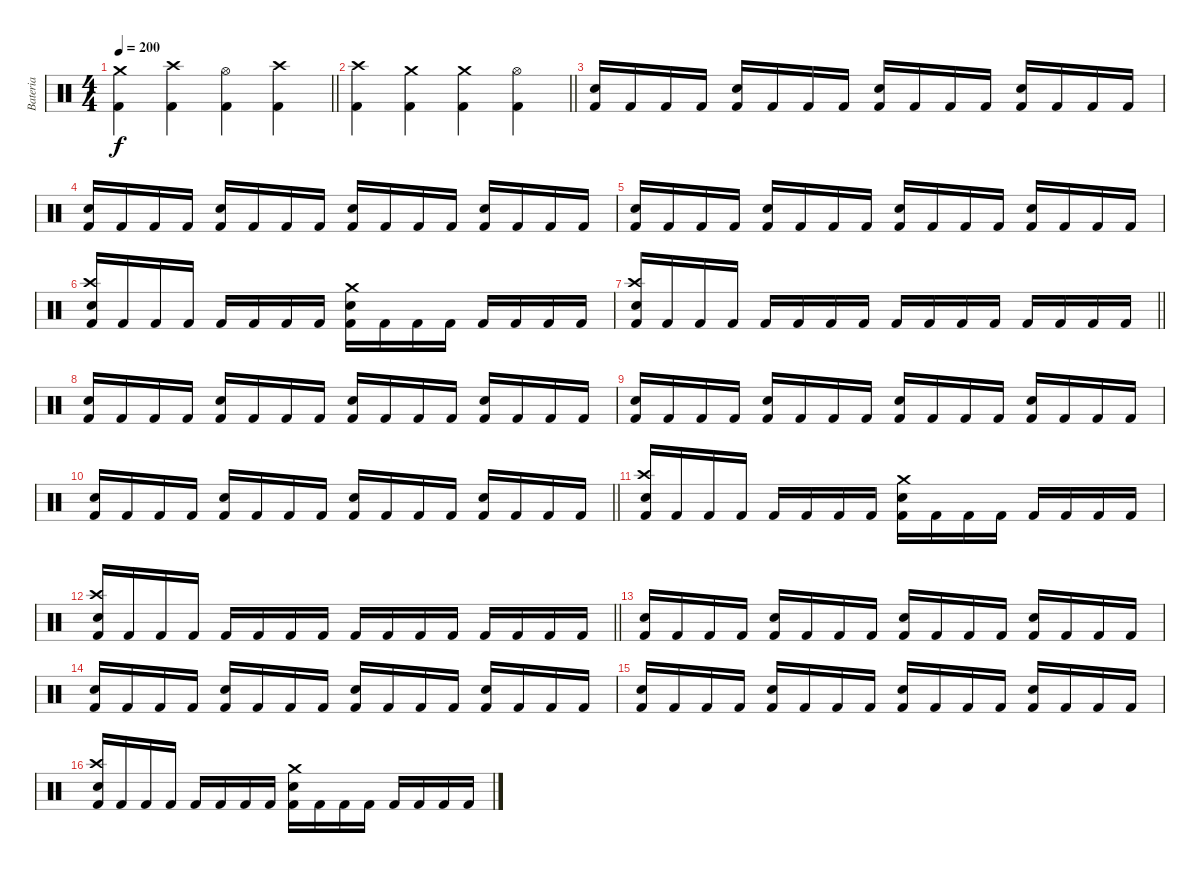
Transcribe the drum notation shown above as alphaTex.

\track ("Bateria" "Bateria") {instrument percussion}
\staff {score}
\articulation defaults
\ts (4 4)
\tempo 200
\clef neutral
\barLineRight lightlight
\ks c
("Crash medium (hit)" "Kick (hit) 2").4{dy f} ("Crash high (hit)" "Kick (hit) 2").4 ("Hi-Hat (open)" "Kick (hit) 2").4 ("Crash high (hit)" "Kick (hit) 2").4 |
\barLineRight lightlight
("Crash high (hit)" "Kick (hit) 2").4 ("Crash medium (hit)" "Kick (hit) 2").4 ("Crash medium (hit)" "Kick (hit) 2").4 ("Hi-Hat (open)" "Kick (hit) 2").4 |
\section ("" "")
("Electric Snare (hit)" "Kick (hit) 2").16 "Kick (hit) 2".16 "Kick (hit) 2".16 "Kick (hit) 2".16 ("Electric Snare (hit)" "Kick (hit) 2").16 "Kick (hit) 2".16 "Kick (hit) 2".16 "Kick (hit) 2".16 ("Electric Snare (hit)" "Kick (hit) 2").16 "Kick (hit) 2".16 "Kick (hit) 2".16 "Kick (hit) 2".16 ("Electric Snare (hit)" "Kick (hit) 2").16 "Kick (hit) 2".16 "Kick (hit) 2".16 "Kick (hit) 2".16 |
("Electric Snare (hit)" "Kick (hit) 2").16 "Kick (hit) 2".16 "Kick (hit) 2".16 "Kick (hit) 2".16 ("Electric Snare (hit)" "Kick (hit) 2").16 "Kick (hit) 2".16 "Kick (hit) 2".16 "Kick (hit) 2".16 ("Electric Snare (hit)" "Kick (hit) 2").16 "Kick (hit) 2".16 "Kick (hit) 2".16 "Kick (hit) 2".16 ("Electric Snare (hit)" "Kick (hit) 2").16 "Kick (hit) 2".16 "Kick (hit) 2".16 "Kick (hit) 2".16 |
("Electric Snare (hit)" "Kick (hit) 2").16 "Kick (hit) 2".16 "Kick (hit) 2".16 "Kick (hit) 2".16 ("Electric Snare (hit)" "Kick (hit) 2").16 "Kick (hit) 2".16 "Kick (hit) 2".16 "Kick (hit) 2".16 ("Electric Snare (hit)" "Kick (hit) 2").16 "Kick (hit) 2".16 "Kick (hit) 2".16 "Kick (hit) 2".16 ("Electric Snare (hit)" "Kick (hit) 2").16 "Kick (hit) 2".16 "Kick (hit) 2".16 "Kick (hit) 2".16 |
("Crash high (hit)" "Electric Snare (hit)" "Kick (hit) 2").16 "Kick (hit) 2".16 "Kick (hit) 2".16 "Kick (hit) 2".16 "Kick (hit) 2".16 "Kick (hit) 2".16 "Kick (hit) 2".16 "Kick (hit) 2".16 ("Crash medium (hit)" "Electric Snare (hit)" "Kick (hit) 2").16 "Kick (hit) 2".16 "Kick (hit) 2".16 "Kick (hit) 2".16 "Kick (hit) 2".16 "Kick (hit) 2".16 "Kick (hit) 2".16 "Kick (hit) 2".16 |
\barLineRight lightlight
("Crash high (hit)" "Electric Snare (hit)" "Kick (hit) 2").16 "Kick (hit) 2".16 "Kick (hit) 2".16 "Kick (hit) 2".16 "Kick (hit) 2".16 "Kick (hit) 2".16 "Kick (hit) 2".16 "Kick (hit) 2".16 "Kick (hit) 2".16 "Kick (hit) 2".16 "Kick (hit) 2".16 "Kick (hit) 2".16 "Kick (hit) 2".16 "Kick (hit) 2".16 "Kick (hit) 2".16 "Kick (hit) 2".16 |
("Electric Snare (hit)" "Kick (hit) 2").16 "Kick (hit) 2".16 "Kick (hit) 2".16 "Kick (hit) 2".16 ("Electric Snare (hit)" "Kick (hit) 2").16 "Kick (hit) 2".16 "Kick (hit) 2".16 "Kick (hit) 2".16 ("Electric Snare (hit)" "Kick (hit) 2").16 "Kick (hit) 2".16 "Kick (hit) 2".16 "Kick (hit) 2".16 ("Electric Snare (hit)" "Kick (hit) 2").16 "Kick (hit) 2".16 "Kick (hit) 2".16 "Kick (hit) 2".16 |
("Electric Snare (hit)" "Kick (hit) 2").16 "Kick (hit) 2".16 "Kick (hit) 2".16 "Kick (hit) 2".16 ("Electric Snare (hit)" "Kick (hit) 2").16 "Kick (hit) 2".16 "Kick (hit) 2".16 "Kick (hit) 2".16 ("Electric Snare (hit)" "Kick (hit) 2").16 "Kick (hit) 2".16 "Kick (hit) 2".16 "Kick (hit) 2".16 ("Electric Snare (hit)" "Kick (hit) 2").16 "Kick (hit) 2".16 "Kick (hit) 2".16 "Kick (hit) 2".16 |
\barLineRight lightlight
("Electric Snare (hit)" "Kick (hit) 2").16 "Kick (hit) 2".16 "Kick (hit) 2".16 "Kick (hit) 2".16 ("Electric Snare (hit)" "Kick (hit) 2").16 "Kick (hit) 2".16 "Kick (hit) 2".16 "Kick (hit) 2".16 ("Electric Snare (hit)" "Kick (hit) 2").16 "Kick (hit) 2".16 "Kick (hit) 2".16 "Kick (hit) 2".16 ("Electric Snare (hit)" "Kick (hit) 2").16 "Kick (hit) 2".16 "Kick (hit) 2".16 "Kick (hit) 2".16 |
("Crash high (hit)" "Electric Snare (hit)" "Kick (hit) 2").16 "Kick (hit) 2".16 "Kick (hit) 2".16 "Kick (hit) 2".16 "Kick (hit) 2".16 "Kick (hit) 2".16 "Kick (hit) 2".16 "Kick (hit) 2".16 ("Crash medium (hit)" "Electric Snare (hit)" "Kick (hit) 2").16 "Kick (hit) 2".16 "Kick (hit) 2".16 "Kick (hit) 2".16 "Kick (hit) 2".16 "Kick (hit) 2".16 "Kick (hit) 2".16 "Kick (hit) 2".16 |
\barLineRight lightlight
("Crash high (hit)" "Electric Snare (hit)" "Kick (hit) 2").16 "Kick (hit) 2".16 "Kick (hit) 2".16 "Kick (hit) 2".16 "Kick (hit) 2".16 "Kick (hit) 2".16 "Kick (hit) 2".16 "Kick (hit) 2".16 "Kick (hit) 2".16 "Kick (hit) 2".16 "Kick (hit) 2".16 "Kick (hit) 2".16 "Kick (hit) 2".16 "Kick (hit) 2".16 "Kick (hit) 2".16 "Kick (hit) 2".16 |
("Electric Snare (hit)" "Kick (hit) 2").16 "Kick (hit) 2".16 "Kick (hit) 2".16 "Kick (hit) 2".16 ("Electric Snare (hit)" "Kick (hit) 2").16 "Kick (hit) 2".16 "Kick (hit) 2".16 "Kick (hit) 2".16 ("Electric Snare (hit)" "Kick (hit) 2").16 "Kick (hit) 2".16 "Kick (hit) 2".16 "Kick (hit) 2".16 ("Electric Snare (hit)" "Kick (hit) 2").16 "Kick (hit) 2".16 "Kick (hit) 2".16 "Kick (hit) 2".16 |
("Electric Snare (hit)" "Kick (hit) 2").16 "Kick (hit) 2".16 "Kick (hit) 2".16 "Kick (hit) 2".16 ("Electric Snare (hit)" "Kick (hit) 2").16 "Kick (hit) 2".16 "Kick (hit) 2".16 "Kick (hit) 2".16 ("Electric Snare (hit)" "Kick (hit) 2").16 "Kick (hit) 2".16 "Kick (hit) 2".16 "Kick (hit) 2".16 ("Electric Snare (hit)" "Kick (hit) 2").16 "Kick (hit) 2".16 "Kick (hit) 2".16 "Kick (hit) 2".16 |
("Electric Snare (hit)" "Kick (hit) 2").16 "Kick (hit) 2".16 "Kick (hit) 2".16 "Kick (hit) 2".16 ("Electric Snare (hit)" "Kick (hit) 2").16 "Kick (hit) 2".16 "Kick (hit) 2".16 "Kick (hit) 2".16 ("Electric Snare (hit)" "Kick (hit) 2").16 "Kick (hit) 2".16 "Kick (hit) 2".16 "Kick (hit) 2".16 ("Electric Snare (hit)" "Kick (hit) 2").16 "Kick (hit) 2".16 "Kick (hit) 2".16 "Kick (hit) 2".16 |
("Crash high (hit)" "Electric Snare (hit)" "Kick (hit) 2").16 "Kick (hit) 2".16 "Kick (hit) 2".16 "Kick (hit) 2".16 "Kick (hit) 2".16 "Kick (hit) 2".16 "Kick (hit) 2".16 "Kick (hit) 2".16 ("Crash medium (hit)" "Electric Snare (hit)" "Kick (hit) 2").16 "Kick (hit) 2".16 "Kick (hit) 2".16 "Kick (hit) 2".16 "Kick (hit) 2".16 "Kick (hit) 2".16 "Kick (hit) 2".16 "Kick (hit) 2".16
